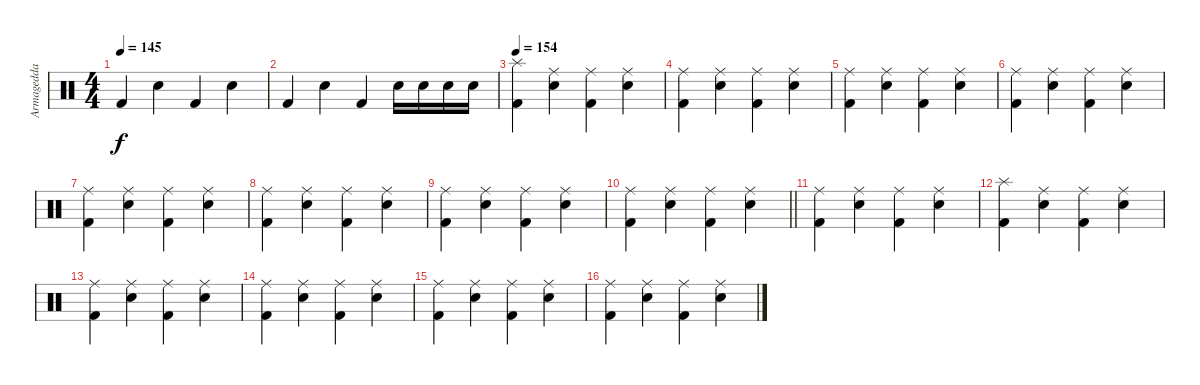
\track ("Armagedda" "Armagedda") {instrument percussion}
\staff {score}
\articulation defaults
\ts (4 4)
\tempo 145
\clef neutral
\ks c "Kick (hit) 2".4{dy f} "Snare (hit) 2".4 "Kick (hit) 2".4 "Snare (hit) 2".4
|
"Kick (hit) 2".4 "Snare (hit) 2".4 "Kick (hit) 2".4 "Snare (hit) 2".16 "Snare (hit) 2".16 "Snare (hit) 2".16 "Snare (hit) 2".16 |
\tempo 154
("Splash (hit)" "Kick (hit) 2").4 ("Ride (middle)" "Snare (hit) 2").4 ("Ride (middle)" "Kick (hit) 2").4 ("Ride (middle)" "Snare (hit) 2").4 |
("Ride (middle)" "Kick (hit) 2").4 ("Ride (middle)" "Snare (hit) 2").4 ("Ride (middle)" "Kick (hit) 2").4 ("Ride (middle)" "Snare (hit) 2").4 |
("Ride (middle)" "Kick (hit) 2").4 ("Ride (middle)" "Snare (hit) 2").4 ("Ride (middle)" "Kick (hit) 2").4 ("Ride (middle)" "Snare (hit) 2").4 |
("Ride (middle)" "Kick (hit) 2").4 ("Ride (middle)" "Snare (hit) 2").4 ("Ride (middle)" "Kick (hit) 2").4 ("Ride (middle)" "Snare (hit) 2").4 |
("Ride (middle)" "Kick (hit) 2").4 ("Ride (middle)" "Snare (hit) 2").4 ("Ride (middle)" "Kick (hit) 2").4 ("Ride (middle)" "Snare (hit) 2").4 |
("Ride (middle)" "Kick (hit) 2").4 ("Ride (middle)" "Snare (hit) 2").4 ("Ride (middle)" "Kick (hit) 2").4 ("Ride (middle)" "Snare (hit) 2").4 |
("Ride (middle)" "Kick (hit) 2").4 ("Ride (middle)" "Snare (hit) 2").4 ("Ride (middle)" "Kick (hit) 2").4 ("Ride (middle)" "Snare (hit) 2").4 |
\barLineRight lightlight
("Ride (middle)" "Kick (hit) 2").4 ("Ride (middle)" "Snare (hit) 2").4 ("Ride (middle)" "Kick (hit) 2").4 ("Ride (middle)" "Snare (hit) 2").4 |
("Ride (middle)" "Kick (hit) 2").4 ("Ride (middle)" "Snare (hit) 2").4 ("Ride (middle)" "Kick (hit) 2").4 ("Ride (middle)" "Snare (hit) 2").4 |
("Splash (hit)" "Kick (hit) 2").4 ("Ride (middle)" "Snare (hit) 2").4 ("Ride (middle)" "Kick (hit) 2").4 ("Ride (middle)" "Snare (hit) 2").4 |
("Ride (middle)" "Kick (hit) 2").4 ("Ride (middle)" "Snare (hit) 2").4 ("Ride (middle)" "Kick (hit) 2").4 ("Ride (middle)" "Snare (hit) 2").4 |
("Ride (middle)" "Kick (hit) 2").4 ("Ride (middle)" "Snare (hit) 2").4 ("Ride (middle)" "Kick (hit) 2").4 ("Ride (middle)" "Snare (hit) 2").4 |
("Ride (middle)" "Kick (hit) 2").4 ("Ride (middle)" "Snare (hit) 2").4 ("Ride (middle)" "Kick (hit) 2").4 ("Ride (middle)" "Snare (hit) 2").4 |
("Ride (middle)" "Kick (hit) 2").4 ("Ride (middle)" "Snare (hit) 2").4 ("Ride (middle)" "Kick (hit) 2").4 ("Ride (middle)" "Snare (hit) 2").4
